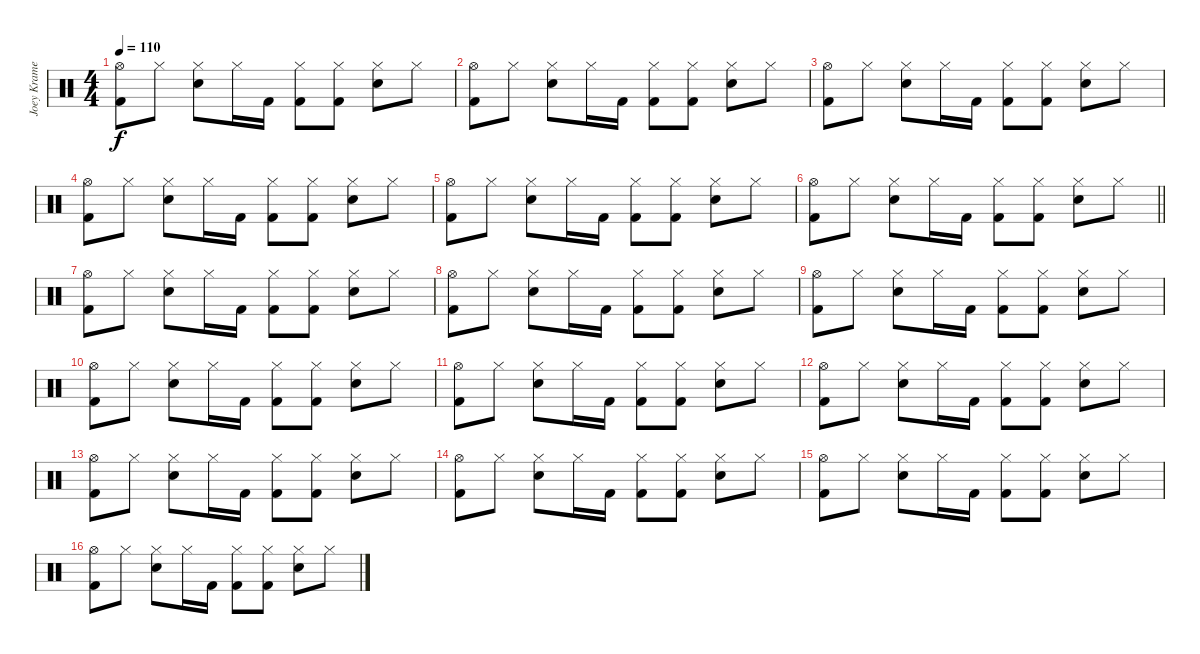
\track ("Joey Kramer - Drums" "Joey Krame") {instrument percussion}
\staff {score}
\articulation defaults
\ts (4 4)
\tempo 110
\clef neutral
\ks c
("Hi-Hat (open)" "Kick (hit) 2").8{dy f} "Hi-Hat (closed)".8 ("Hi-Hat (closed)" "Electric Snare (hit)").8 "Hi-Hat (closed)".16 "Kick (hit) 2".16 ("Hi-Hat (closed)" "Kick (hit) 2").8 ("Hi-Hat (closed)" "Kick (hit) 2").8 ("Hi-Hat (closed)" "Electric Snare (hit)").8 "Hi-Hat (closed)".8 |
("Hi-Hat (open)" "Kick (hit) 2").8 "Hi-Hat (closed)".8 ("Hi-Hat (closed)" "Electric Snare (hit)").8 "Hi-Hat (closed)".16 "Kick (hit) 2".16 ("Hi-Hat (closed)" "Kick (hit) 2").8 ("Hi-Hat (closed)" "Kick (hit) 2").8 ("Hi-Hat (closed)" "Electric Snare (hit)").8 "Hi-Hat (closed)".8 |
("Hi-Hat (open)" "Kick (hit) 2").8 "Hi-Hat (closed)".8 ("Hi-Hat (closed)" "Electric Snare (hit)").8 "Hi-Hat (closed)".16 "Kick (hit) 2".16 ("Hi-Hat (closed)" "Kick (hit) 2").8 ("Hi-Hat (closed)" "Kick (hit) 2").8 ("Hi-Hat (closed)" "Electric Snare (hit)").8 "Hi-Hat (closed)".8 |
("Hi-Hat (open)" "Kick (hit) 2").8 "Hi-Hat (closed)".8 ("Hi-Hat (closed)" "Electric Snare (hit)").8 "Hi-Hat (closed)".16 "Kick (hit) 2".16 ("Hi-Hat (closed)" "Kick (hit) 2").8 ("Hi-Hat (closed)" "Kick (hit) 2").8 ("Hi-Hat (closed)" "Electric Snare (hit)").8 "Hi-Hat (closed)".8 |
("Hi-Hat (open)" "Kick (hit) 2").8 "Hi-Hat (closed)".8 ("Hi-Hat (closed)" "Electric Snare (hit)").8 "Hi-Hat (closed)".16 "Kick (hit) 2".16 ("Hi-Hat (closed)" "Kick (hit) 2").8 ("Hi-Hat (closed)" "Kick (hit) 2").8 ("Hi-Hat (closed)" "Electric Snare (hit)").8 "Hi-Hat (closed)".8 |
\barLineRight lightlight
("Hi-Hat (open)" "Kick (hit) 2").8 "Hi-Hat (closed)".8 ("Hi-Hat (closed)" "Electric Snare (hit)").8 "Hi-Hat (closed)".16 "Kick (hit) 2".16 ("Hi-Hat (closed)" "Kick (hit) 2").8 ("Hi-Hat (closed)" "Kick (hit) 2").8 ("Hi-Hat (closed)" "Electric Snare (hit)").8 "Hi-Hat (closed)".8 |
("Hi-Hat (open)" "Kick (hit) 2").8 "Hi-Hat (closed)".8 ("Hi-Hat (closed)" "Electric Snare (hit)").8 "Hi-Hat (closed)".16 "Kick (hit) 2".16 ("Hi-Hat (closed)" "Kick (hit) 2").8 ("Hi-Hat (closed)" "Kick (hit) 2").8 ("Hi-Hat (closed)" "Electric Snare (hit)").8 "Hi-Hat (closed)".8 |
("Hi-Hat (open)" "Kick (hit) 2").8 "Hi-Hat (closed)".8 ("Hi-Hat (closed)" "Electric Snare (hit)").8 "Hi-Hat (closed)".16 "Kick (hit) 2".16 ("Hi-Hat (closed)" "Kick (hit) 2").8 ("Hi-Hat (closed)" "Kick (hit) 2").8 ("Hi-Hat (closed)" "Electric Snare (hit)").8 "Hi-Hat (closed)".8 |
("Hi-Hat (open)" "Kick (hit) 2").8 "Hi-Hat (closed)".8 ("Hi-Hat (closed)" "Electric Snare (hit)").8 "Hi-Hat (closed)".16 "Kick (hit) 2".16 ("Hi-Hat (closed)" "Kick (hit) 2").8 ("Hi-Hat (closed)" "Kick (hit) 2").8 ("Hi-Hat (closed)" "Electric Snare (hit)").8 "Hi-Hat (closed)".8 |
("Hi-Hat (open)" "Kick (hit) 2").8 "Hi-Hat (closed)".8 ("Hi-Hat (closed)" "Electric Snare (hit)").8 "Hi-Hat (closed)".16 "Kick (hit) 2".16 ("Hi-Hat (closed)" "Kick (hit) 2").8 ("Hi-Hat (closed)" "Kick (hit) 2").8 ("Hi-Hat (closed)" "Electric Snare (hit)").8 "Hi-Hat (closed)".8 |
("Hi-Hat (open)" "Kick (hit) 2").8 "Hi-Hat (closed)".8 ("Hi-Hat (closed)" "Electric Snare (hit)").8 "Hi-Hat (closed)".16 "Kick (hit) 2".16 ("Hi-Hat (closed)" "Kick (hit) 2").8 ("Hi-Hat (closed)" "Kick (hit) 2").8 ("Hi-Hat (closed)" "Electric Snare (hit)").8 "Hi-Hat (closed)".8 |
("Hi-Hat (open)" "Kick (hit) 2").8 "Hi-Hat (closed)".8 ("Hi-Hat (closed)" "Electric Snare (hit)").8 "Hi-Hat (closed)".16 "Kick (hit) 2".16 ("Hi-Hat (closed)" "Kick (hit) 2").8 ("Hi-Hat (closed)" "Kick (hit) 2").8 ("Hi-Hat (closed)" "Electric Snare (hit)").8 "Hi-Hat (closed)".8 |
("Hi-Hat (open)" "Kick (hit) 2").8 "Hi-Hat (closed)".8 ("Hi-Hat (closed)" "Electric Snare (hit)").8 "Hi-Hat (closed)".16 "Kick (hit) 2".16 ("Hi-Hat (closed)" "Kick (hit) 2").8 ("Hi-Hat (closed)" "Kick (hit) 2").8 ("Hi-Hat (closed)" "Electric Snare (hit)").8 "Hi-Hat (closed)".8 |
("Hi-Hat (open)" "Kick (hit) 2").8 "Hi-Hat (closed)".8 ("Hi-Hat (closed)" "Electric Snare (hit)").8 "Hi-Hat (closed)".16 "Kick (hit) 2".16 ("Hi-Hat (closed)" "Kick (hit) 2").8 ("Hi-Hat (closed)" "Kick (hit) 2").8 ("Hi-Hat (closed)" "Electric Snare (hit)").8 "Hi-Hat (closed)".8 |
("Hi-Hat (open)" "Kick (hit) 2").8 "Hi-Hat (closed)".8 ("Hi-Hat (closed)" "Electric Snare (hit)").8 "Hi-Hat (closed)".16 "Kick (hit) 2".16 ("Hi-Hat (closed)" "Kick (hit) 2").8 ("Hi-Hat (closed)" "Kick (hit) 2").8 ("Hi-Hat (closed)" "Electric Snare (hit)").8 "Hi-Hat (closed)".8 |
("Hi-Hat (open)" "Kick (hit) 2").8 "Hi-Hat (closed)".8 ("Hi-Hat (closed)" "Electric Snare (hit)").8 "Hi-Hat (closed)".16 "Kick (hit) 2".16 ("Hi-Hat (closed)" "Kick (hit) 2").8 ("Hi-Hat (closed)" "Kick (hit) 2").8 ("Hi-Hat (closed)" "Electric Snare (hit)").8 "Hi-Hat (closed)".8
